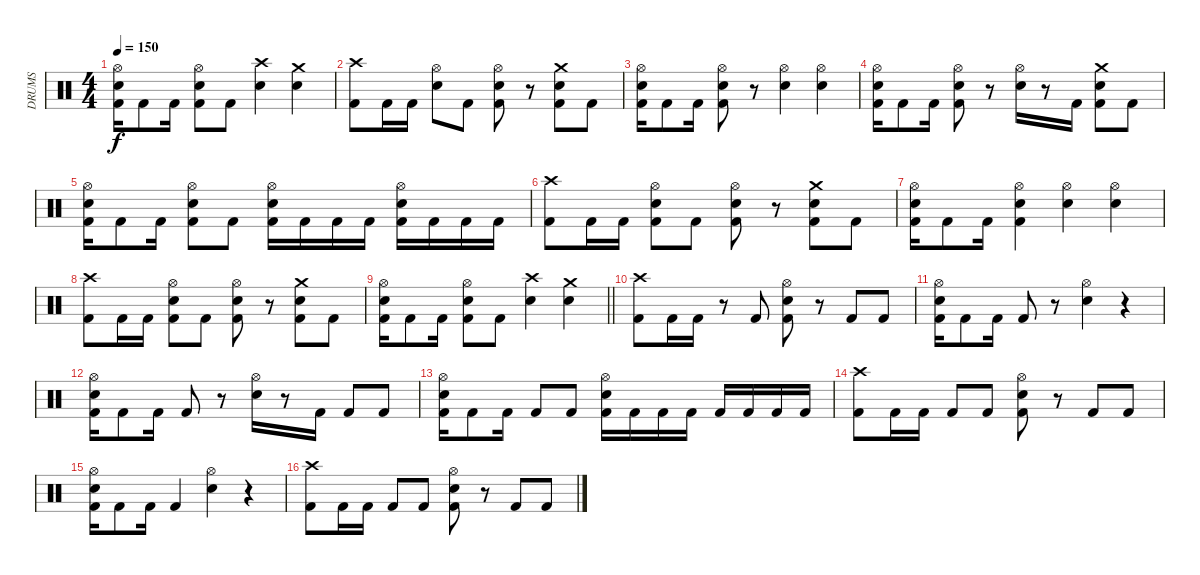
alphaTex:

\track ("DRUMS" "DRUMS") {instrument percussion}
\staff {score}
\articulation defaults
\ts (4 4)
\tempo 150
\clef neutral
\ks c
("Hi-Hat (open)" "Electric Snare (hit)" "Kick (hit) 2").16{dy f} "Kick (hit) 2".8 "Kick (hit) 2".16 ("Hi-Hat (open)" "Electric Snare (hit)" "Kick (hit) 2").8 "Kick (hit) 2".8 ("Crash high (hit)" "Electric Snare (hit)").4 ("Crash medium (hit)" "Electric Snare (hit)").4 |
("Crash high (hit)" "Kick (hit) 2").8 "Kick (hit) 2".16 "Kick (hit) 2".16 ("Hi-Hat (open)" "Electric Snare (hit)").8 "Kick (hit) 2".8 ("Hi-Hat (open)" "Electric Snare (hit)" "Kick (hit) 2").8 r.8 ("Crash medium (hit)" "Electric Snare (hit)" "Kick (hit) 2").8 "Kick (hit) 2".8 |
("Hi-Hat (open)" "Electric Snare (hit)" "Kick (hit) 2").16 "Kick (hit) 2".8 "Kick (hit) 2".16 ("Hi-Hat (open)" "Electric Snare (hit)" "Kick (hit) 2").8 r.8 ("Hi-Hat (open)" "Electric Snare (hit)").4 ("Hi-Hat (open)" "Electric Snare (hit)").4 |
("Hi-Hat (open)" "Electric Snare (hit)" "Kick (hit) 2").16 "Kick (hit) 2".8 "Kick (hit) 2".16 ("Hi-Hat (open)" "Electric Snare (hit)" "Kick (hit) 2").8 r.8 ("Hi-Hat (open)" "Electric Snare (hit)").16 r.8 "Kick (hit) 2".16 ("Crash medium (hit)" "Electric Snare (hit)" "Kick (hit) 2").8 "Kick (hit) 2".8 |
("Hi-Hat (open)" "Electric Snare (hit)" "Kick (hit) 2").16 "Kick (hit) 2".8 "Kick (hit) 2".16 ("Hi-Hat (open)" "Electric Snare (hit)" "Kick (hit) 2").8 "Kick (hit) 2".8 ("Hi-Hat (open)" "Electric Snare (hit)" "Kick (hit) 2").16 "Kick (hit) 2".16 "Kick (hit) 2".16 "Kick (hit) 2".16 ("Hi-Hat (open)" "Electric Snare (hit)" "Kick (hit) 2").16 "Kick (hit) 2".16 "Kick (hit) 2".16 "Kick (hit) 2".16 |
("Crash high (hit)" "Kick (hit) 2").8 "Kick (hit) 2".16 "Kick (hit) 2".16 ("Hi-Hat (open)" "Electric Snare (hit)" "Kick (hit) 2").8 "Kick (hit) 2".8 ("Hi-Hat (open)" "Electric Snare (hit)" "Kick (hit) 2").8 r.8 ("Crash medium (hit)" "Electric Snare (hit)" "Kick (hit) 2").8 "Kick (hit) 2".8 |
("Hi-Hat (open)" "Electric Snare (hit)" "Kick (hit) 2").16 "Kick (hit) 2".8 "Kick (hit) 2".16 ("Hi-Hat (open)" "Electric Snare (hit)" "Kick (hit) 2").4 ("Hi-Hat (open)" "Electric Snare (hit)").4 ("Hi-Hat (open)" "Electric Snare (hit)").4 |
("Crash high (hit)" "Kick (hit) 2").8 "Kick (hit) 2".16 "Kick (hit) 2".16 ("Hi-Hat (open)" "Electric Snare (hit)" "Kick (hit) 2").8 "Kick (hit) 2".8 ("Hi-Hat (open)" "Electric Snare (hit)" "Kick (hit) 2").8 r.8 ("Crash medium (hit)" "Electric Snare (hit)" "Kick (hit) 2").8 "Kick (hit) 2".8 |
\barLineRight lightlight
("Hi-Hat (open)" "Electric Snare (hit)" "Kick (hit) 2").16 "Kick (hit) 2".8 "Kick (hit) 2".16 ("Hi-Hat (open)" "Electric Snare (hit)" "Kick (hit) 2").8 "Kick (hit) 2".8 ("Crash high (hit)" "Electric Snare (hit)").4 ("Crash medium (hit)" "Electric Snare (hit)").4 |
\section ("" "")
("Crash high (hit)" "Kick (hit) 2").8 "Kick (hit) 2".16 "Kick (hit) 2".16 r.8 "Kick (hit) 2".8 ("Hi-Hat (open)" "Electric Snare (hit)" "Kick (hit) 2").8 r.8 "Kick (hit) 2".8 "Kick (hit) 2".8 |
("Hi-Hat (open)" "Electric Snare (hit)" "Kick (hit) 2").16 "Kick (hit) 2".8 "Kick (hit) 2".16 "Kick (hit) 2".8 r.8 ("Hi-Hat (open)" "Electric Snare (hit)").4 r.4 |
("Hi-Hat (open)" "Electric Snare (hit)" "Kick (hit) 2").16 "Kick (hit) 2".8 "Kick (hit) 2".16 "Kick (hit) 2".8 r.8 ("Hi-Hat (open)" "Electric Snare (hit)").16 r.8 "Kick (hit) 2".16 "Kick (hit) 2".8 "Kick (hit) 2".8 |
("Hi-Hat (open)" "Electric Snare (hit)" "Kick (hit) 2").16 "Kick (hit) 2".8 "Kick (hit) 2".16 "Kick (hit) 2".8 "Kick (hit) 2".8 ("Hi-Hat (open)" "Electric Snare (hit)" "Kick (hit) 2").16 "Kick (hit) 2".16 "Kick (hit) 2".16 "Kick (hit) 2".16 "Kick (hit) 2".16 "Kick (hit) 2".16 "Kick (hit) 2".16 "Kick (hit) 2".16 |
("Crash high (hit)" "Kick (hit) 2").8 "Kick (hit) 2".16 "Kick (hit) 2".16 "Kick (hit) 2".8 "Kick (hit) 2".8 ("Hi-Hat (open)" "Electric Snare (hit)" "Kick (hit) 2").8 r.8 "Kick (hit) 2".8 "Kick (hit) 2".8 |
("Hi-Hat (open)" "Electric Snare (hit)" "Kick (hit) 2").16 "Kick (hit) 2".8 "Kick (hit) 2".16 "Kick (hit) 2".4 ("Hi-Hat (open)" "Electric Snare (hit)").4 r.4 |
("Crash high (hit)" "Kick (hit) 2").8 "Kick (hit) 2".16 "Kick (hit) 2".16 "Kick (hit) 2".8 "Kick (hit) 2".8 ("Hi-Hat (open)" "Electric Snare (hit)" "Kick (hit) 2").8 r.8 "Kick (hit) 2".8 "Kick (hit) 2".8
